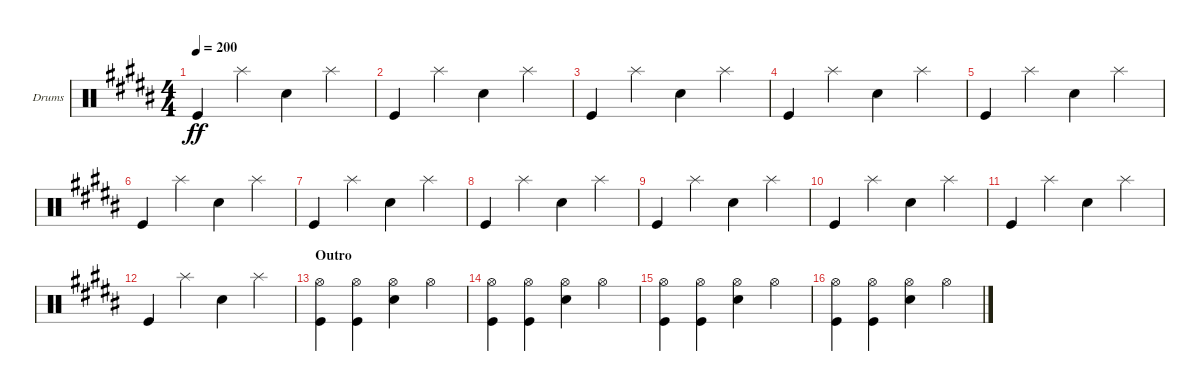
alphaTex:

\defaultSystemsLayout 4
\bracketExtendMode groupsimilarinstruments
\firstSystemTrackNameOrientation horizontal
\otherSystemsTrackNameOrientation horizontal
\track ("Drumkit" "Drums") {instrument percussion}
\staff {score}
\articulation defaults
\ts (4 4)
\tempo 200
\clef neutral
\ks b "Kick (hit)".4{dy ff} "Splash (hit)".4 "Snare (hit) 2".4 "Splash (hit)".4
|
"Kick (hit)".4 "Splash (hit)".4 "Snare (hit) 2".4 "Splash (hit)".4 |
"Kick (hit)".4 "Splash (hit)".4 "Snare (hit) 2".4 "Splash (hit)".4 |
"Kick (hit)".4 "Splash (hit)".4 "Snare (hit) 2".4 "Splash (hit)".4 |
"Kick (hit)".4 "Splash (hit)".4 "Snare (hit) 2".4 "Splash (hit)".4 |
"Kick (hit)".4 "Splash (hit)".4 "Snare (hit) 2".4 "Splash (hit)".4 |
"Kick (hit)".4 "Splash (hit)".4 "Snare (hit) 2".4 "Splash (hit)".4 |
"Kick (hit)".4 "Splash (hit)".4 "Snare (hit) 2".4 "Splash (hit)".4 |
"Kick (hit)".4 "Splash (hit)".4 "Snare (hit) 2".4 "Splash (hit)".4 |
"Kick (hit)".4 "Splash (hit)".4 "Snare (hit) 2".4 "Splash (hit)".4 |
"Kick (hit)".4 "Splash (hit)".4 "Snare (hit) 2".4 "Splash (hit)".4 |
"Kick (hit)".4 "Splash (hit)".4 "Snare (hit) 2".4 "Splash (hit)".4 |
\section ("" "Outro")
("Kick (hit)" "Hi-Hat (open)").4 ("Kick (hit)" "Hi-Hat (open)").4 ("Snare (hit) 2" "Hi-Hat (open)").4 "Hi-Hat (open)".4 |
("Kick (hit)" "Hi-Hat (open)").4 ("Kick (hit)" "Hi-Hat (open)").4 ("Snare (hit) 2" "Hi-Hat (open)").4 "Hi-Hat (open)".4 |
("Kick (hit)" "Hi-Hat (open)").4 ("Kick (hit)" "Hi-Hat (open)").4 ("Snare (hit) 2" "Hi-Hat (open)").4 "Hi-Hat (open)".4 |
("Kick (hit)" "Hi-Hat (open)").4 ("Kick (hit)" "Hi-Hat (open)").4 ("Snare (hit) 2" "Hi-Hat (open)").4 "Hi-Hat (open)".4
